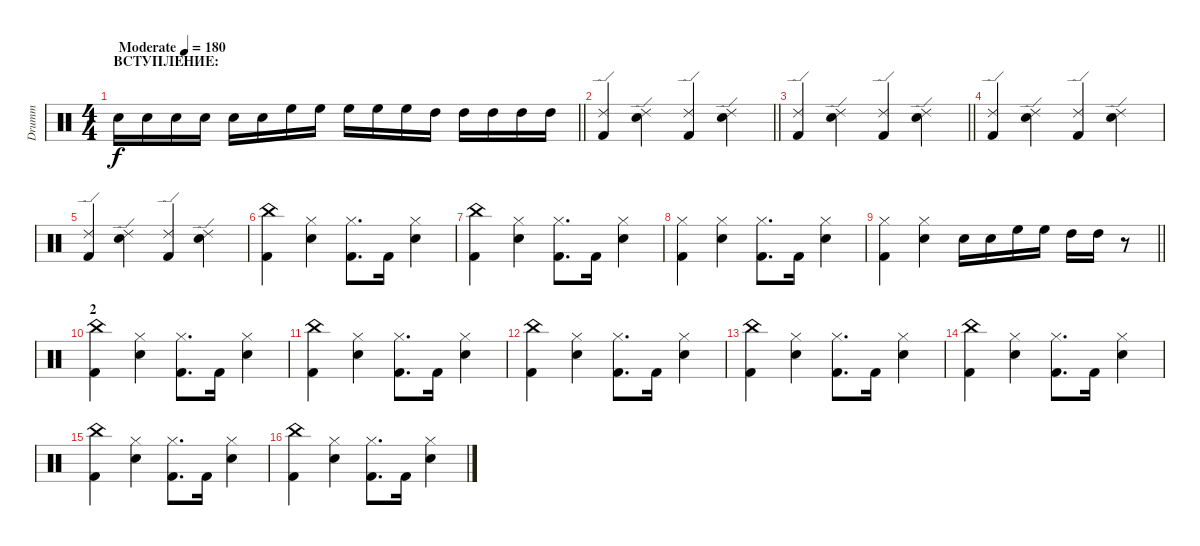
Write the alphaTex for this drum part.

\track ("Drumm" "Drumm") {instrument percussion}
\staff {score}
\articulation defaults
\ts (4 4)
\section ("" "ВСТУПЛЕНИЕ:")
\tempo (180 "Moderate")
\clef neutral
\barLineRight lightlight
\ks c "Electric Snare (hit)".16{dy f} "Electric Snare (hit)".16 "Electric Snare (hit)".16 "Electric Snare (hit)".16 "Electric Snare (hit)".16 "Electric Snare (hit)".16 "High Floor Tom (hit)".16 "High Floor Tom (hit)".16 "High Floor Tom (hit)".16 "High Floor Tom (hit)".16 "High Floor Tom (hit)".16 "High Tom (hit)".16 "High Tom (hit)".16 "High Tom (hit)".16 "High Tom (hit)".16 "High Tom (hit)".16
|
\barLineRight lightlight
("Ride (edge) 2" "Kick (hit) 2").4 ("Ride (edge) 2" "Electric Snare (hit)").4 ("Ride (edge) 2" "Kick (hit) 2").4 ("Ride (edge) 2" "Electric Snare (hit)").4 |
\barLineRight lightlight
("Ride (edge) 2" "Kick (hit) 2").4 ("Ride (edge) 2" "Electric Snare (hit)").4 ("Ride (edge) 2" "Kick (hit) 2").4 ("Ride (edge) 2" "Electric Snare (hit)").4 |
("Ride (edge) 2" "Kick (hit) 2").4 ("Ride (edge) 2" "Electric Snare (hit)").4 ("Ride (edge) 2" "Kick (hit) 2").4 ("Ride (edge) 2" "Electric Snare (hit)").4 |
("Ride (edge) 2" "Kick (hit) 2").4 ("Ride (edge) 2" "Electric Snare (hit)").4 ("Ride (edge) 2" "Kick (hit) 2").4 ("Ride (edge) 2" "Electric Snare (hit)").4 |
("China (hit)" "Kick (hit) 2").4 ("Hi-Hat (closed)" "Electric Snare (hit)").4 ("Hi-Hat (closed)" "Kick (hit) 2").8{d} "Kick (hit) 2".16 ("Hi-Hat (closed)" "Electric Snare (hit)").4 |
("China (hit)" "Kick (hit) 2").4 ("Hi-Hat (closed)" "Electric Snare (hit)").4 ("Hi-Hat (closed)" "Kick (hit) 2").8{d} "Kick (hit) 2".16 ("Hi-Hat (closed)" "Electric Snare (hit)").4 |
("Hi-Hat (closed)" "Kick (hit) 2").4 ("Hi-Hat (closed)" "Electric Snare (hit)").4 ("Hi-Hat (closed)" "Kick (hit) 2").8{d} "Kick (hit) 2".16 ("Hi-Hat (closed)" "Electric Snare (hit)").4 |
\barLineRight lightlight
("Hi-Hat (closed)" "Kick (hit) 2").4 ("Hi-Hat (closed)" "Electric Snare (hit)").4 "Electric Snare (hit)".16 "Electric Snare (hit)".16 "High Floor Tom (hit)".16 "High Floor Tom (hit)".16 "High Tom (hit)".16 "High Tom (hit)".16 r.8 |
\section ("" "2")
("China (hit)" "Kick (hit) 2").4 ("Hi-Hat (closed)" "Electric Snare (hit)").4 ("Hi-Hat (closed)" "Kick (hit) 2").8{d} "Kick (hit) 2".16 ("Hi-Hat (closed)" "Electric Snare (hit)").4 |
("China (hit)" "Kick (hit) 2").4 ("Hi-Hat (closed)" "Electric Snare (hit)").4 ("Hi-Hat (closed)" "Kick (hit) 2").8{d} "Kick (hit) 2".16 ("Hi-Hat (closed)" "Electric Snare (hit)").4 |
("China (hit)" "Kick (hit) 2").4 ("Hi-Hat (closed)" "Electric Snare (hit)").4 ("Hi-Hat (closed)" "Kick (hit) 2").8{d} "Kick (hit) 2".16 ("Hi-Hat (closed)" "Electric Snare (hit)").4 |
("China (hit)" "Kick (hit) 2").4 ("Hi-Hat (closed)" "Electric Snare (hit)").4 ("Hi-Hat (closed)" "Kick (hit) 2").8{d} "Kick (hit) 2".16 ("Hi-Hat (closed)" "Electric Snare (hit)").4 |
("China (hit)" "Kick (hit) 2").4 ("Hi-Hat (closed)" "Electric Snare (hit)").4 ("Hi-Hat (closed)" "Kick (hit) 2").8{d} "Kick (hit) 2".16 ("Hi-Hat (closed)" "Electric Snare (hit)").4 |
("China (hit)" "Kick (hit) 2").4 ("Hi-Hat (closed)" "Electric Snare (hit)").4 ("Hi-Hat (closed)" "Kick (hit) 2").8{d} "Kick (hit) 2".16 ("Hi-Hat (closed)" "Electric Snare (hit)").4 |
("China (hit)" "Kick (hit) 2").4 ("Hi-Hat (closed)" "Electric Snare (hit)").4 ("Hi-Hat (closed)" "Kick (hit) 2").8{d} "Kick (hit) 2".16 ("Hi-Hat (closed)" "Electric Snare (hit)").4
